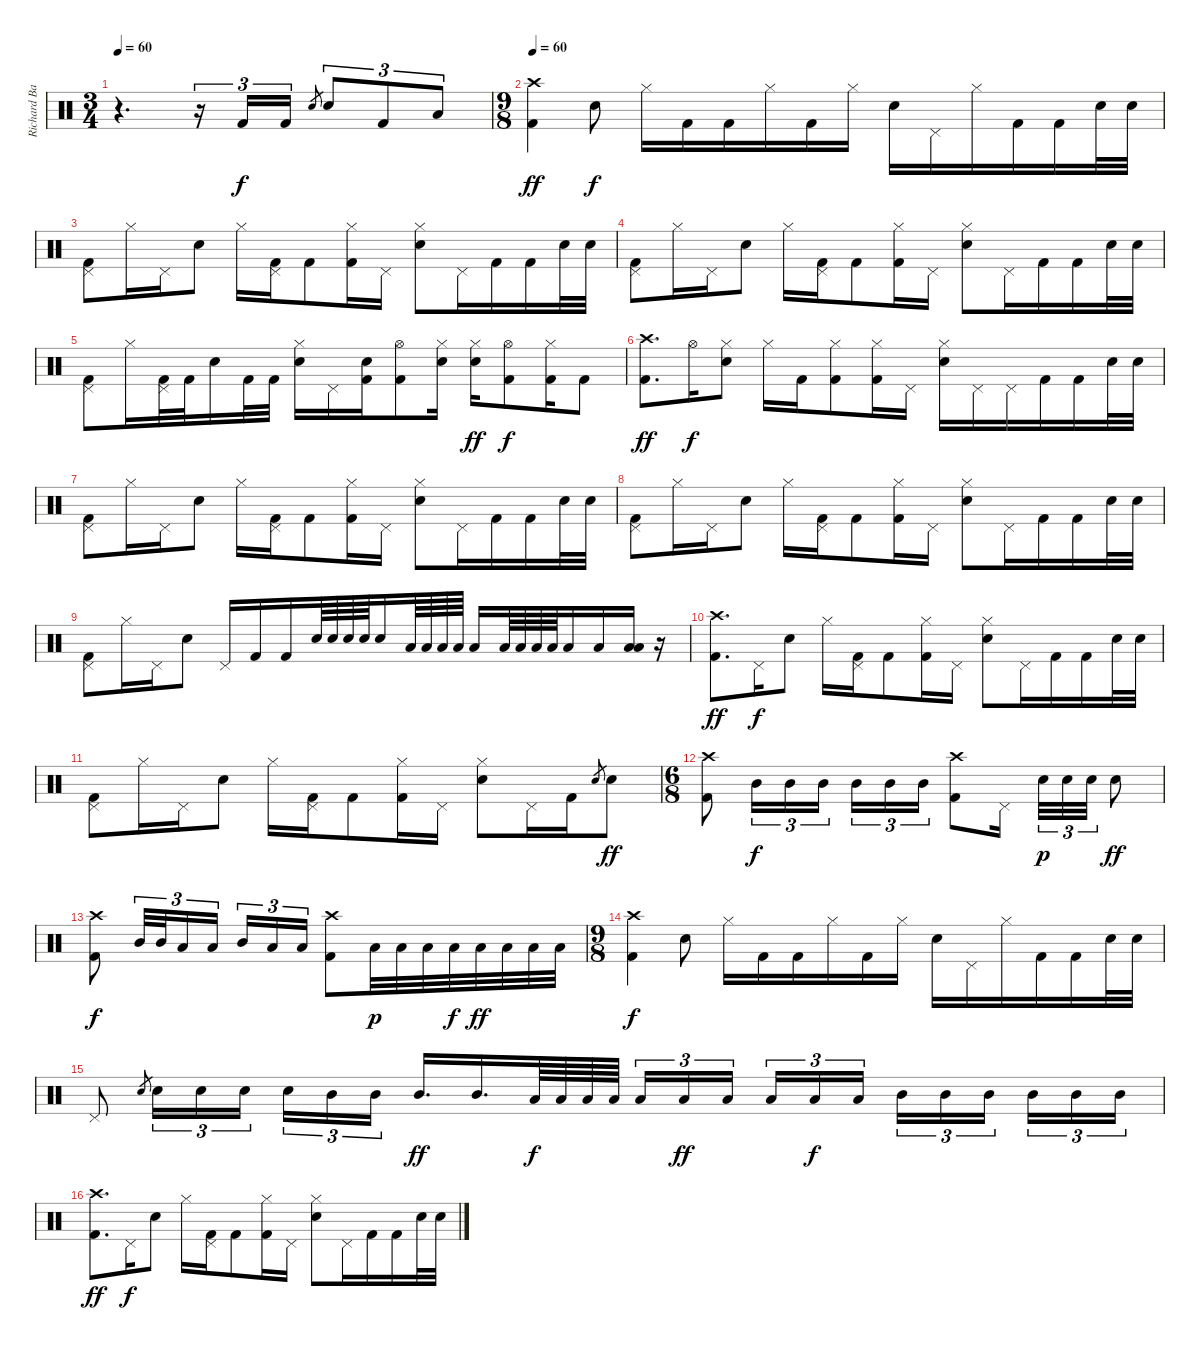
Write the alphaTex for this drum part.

\track ("Richard Bailey" "Richard Ba") {instrument percussion}
\staff {score}
\articulation defaults
\ts (3 4)
\tempo 60
\tempo 66
\tempo 60
\clef neutral
\ks c
r.4{d dy f} r.16{tu (3 2)} "Kick (hit) 2".16{tu (3 2)} "Kick (hit) 2".16{tu (3 2)} "Snare (hit) 2".8{gr} "Snare (hit) 2".8{tu (3 2)} "Kick (hit) 2".8{tu (3 2)} "Low Floor Tom (hit)".8{tu (3 2)} |
\ts (9 8)
\tempo 60
("Crash high (hit)" "Kick (hit) 2").4{dy ff} "Snare (hit) 2".8{dy f} "Hi-Hat (closed)".16 "Kick (hit) 2".16 "Kick (hit) 2".16 "Hi-Hat (closed)".16 "Kick (hit) 2".16 "Hi-Hat (closed)".16 "Snare (hit) 2".16 "Pedal Hi-Hat (hit)".16 "Hi-Hat (closed)".16 "Kick (hit) 2".16 "Kick (hit) 2".16 "Snare (hit) 2".32 "Snare (hit) 2".32 |
("Pedal Hi-Hat (hit)" "Kick (hit) 2").8 "Hi-Hat (closed)".16 "Pedal Hi-Hat (hit)".16 "Snare (hit) 2".8 "Hi-Hat (closed)".16 ("Pedal Hi-Hat (hit)" "Kick (hit) 2").16 "Kick (hit) 2".8 ("Hi-Hat (closed)" "Kick (hit) 2").16 "Pedal Hi-Hat (hit)".16 ("Hi-Hat (closed)" "Snare (hit) 2").8 "Pedal Hi-Hat (hit)".16 "Kick (hit) 2".16 "Kick (hit) 2".16 "Snare (hit) 2".32 "Snare (hit) 2".32 |
("Pedal Hi-Hat (hit)" "Kick (hit) 2").8 "Hi-Hat (closed)".16 "Pedal Hi-Hat (hit)".16 "Snare (hit) 2".8 "Hi-Hat (closed)".16 ("Pedal Hi-Hat (hit)" "Kick (hit) 2").16 "Kick (hit) 2".8 ("Hi-Hat (closed)" "Kick (hit) 2").16 "Pedal Hi-Hat (hit)".16 ("Hi-Hat (closed)" "Snare (hit) 2").8 "Pedal Hi-Hat (hit)".16 "Kick (hit) 2".16 "Kick (hit) 2".16 "Snare (hit) 2".32 "Snare (hit) 2".32 |
("Pedal Hi-Hat (hit)" "Kick (hit) 2").8 "Hi-Hat (closed)".16 ("Pedal Hi-Hat (hit)" "Kick (hit) 2").32 "Kick (hit) 2".32 "Snare (hit) 2".16 "Kick (hit) 2".32 "Kick (hit) 2".32 ("Hi-Hat (closed)" "Snare (hit) 2").16 "Pedal Hi-Hat (hit)".16 ("Snare (hit) 2" "Kick (hit) 2").16 ("Hi-Hat (open)" "Kick (hit) 2").8 ("Hi-Hat (closed)" "Snare (hit) 2").16 ("Hi-Hat (closed)" "Electric Snare (hit)").16{dy ff} ("Hi-Hat (open)" "Kick (hit) 2").8{dy f} ("Hi-Hat (closed)" "Kick (hit) 2").16 "Kick (hit) 2".8 |
("Crash high (hit)" "Kick (hit) 2").8{d dy ff} "Hi-Hat (open)".16{dy f} ("Hi-Hat (closed)" "Snare (hit) 2").8 "Hi-Hat (closed)".16 "Kick (hit) 2".16 ("Hi-Hat (closed)" "Kick (hit) 2").8 ("Hi-Hat (closed)" "Kick (hit) 2").16 "Pedal Hi-Hat (hit)".16 ("Hi-Hat (closed)" "Snare (hit) 2").16 "Pedal Hi-Hat (hit)".16 "Pedal Hi-Hat (hit)".16 "Kick (hit) 2".16 "Kick (hit) 2".16 "Snare (hit) 2".32 "Snare (hit) 2".32 |
("Pedal Hi-Hat (hit)" "Kick (hit) 2").8 "Hi-Hat (closed)".16 "Pedal Hi-Hat (hit)".16 "Snare (hit) 2".8 "Hi-Hat (closed)".16 ("Pedal Hi-Hat (hit)" "Kick (hit) 2").16 "Kick (hit) 2".8 ("Hi-Hat (closed)" "Kick (hit) 2").16 "Pedal Hi-Hat (hit)".16 ("Hi-Hat (closed)" "Snare (hit) 2").8 "Pedal Hi-Hat (hit)".16 "Kick (hit) 2".16 "Kick (hit) 2".16 "Snare (hit) 2".32 "Snare (hit) 2".32 |
("Pedal Hi-Hat (hit)" "Kick (hit) 2").8 "Hi-Hat (closed)".16 "Pedal Hi-Hat (hit)".16 "Snare (hit) 2".8 "Hi-Hat (closed)".16 ("Pedal Hi-Hat (hit)" "Kick (hit) 2").16 "Kick (hit) 2".8 ("Hi-Hat (closed)" "Kick (hit) 2").16 "Pedal Hi-Hat (hit)".16 ("Hi-Hat (closed)" "Snare (hit) 2").8 "Pedal Hi-Hat (hit)".16 "Kick (hit) 2".16 "Kick (hit) 2".16 "Snare (hit) 2".32 "Snare (hit) 2".32 |
("Pedal Hi-Hat (hit)" "Kick (hit) 2").8 "Hi-Hat (closed)".16 "Pedal Hi-Hat (hit)".16 "Snare (hit) 2".8 "Pedal Hi-Hat (hit)".16 "Kick (hit) 2".16 "Kick (hit) 2".16 "Snare (hit) 2".64 "Snare (hit) 2".64 "Snare (hit) 2".64 "Snare (hit) 2".64 "Snare (hit) 2".16 "Low Tom (hit)".64 "Low Tom (hit)".64 "Low Tom (hit)".64 "Low Tom (hit)".64 "Low Tom (hit)".16 "Low Floor Tom (hit)".64 "Low Floor Tom (hit)".64 "Low Floor Tom (hit)".64 "Low Floor Tom (hit)".64 "Low Floor Tom (hit)".16 "Low Floor Tom (hit)".16 ("Low Tom (hit)" "Low Floor Tom (hit)").16 r.16 |
("Crash high (hit)" "Kick (hit) 2").8{d dy ff} "Pedal Hi-Hat (hit)".16{dy f} "Snare (hit) 2".8 "Hi-Hat (closed)".16 ("Pedal Hi-Hat (hit)" "Kick (hit) 2").16 "Kick (hit) 2".8 ("Hi-Hat (closed)" "Kick (hit) 2").16 "Pedal Hi-Hat (hit)".16 ("Hi-Hat (closed)" "Snare (hit) 2").8 "Pedal Hi-Hat (hit)".16 "Kick (hit) 2".16 "Kick (hit) 2".16 "Snare (hit) 2".32 "Snare (hit) 2".32 |
("Pedal Hi-Hat (hit)" "Kick (hit) 2").8 "Hi-Hat (closed)".16 "Pedal Hi-Hat (hit)".16 "Snare (hit) 2".8 "Hi-Hat (closed)".16 ("Pedal Hi-Hat (hit)" "Kick (hit) 2").16 "Kick (hit) 2".8 ("Hi-Hat (closed)" "Kick (hit) 2").16 "Pedal Hi-Hat (hit)".16 ("Hi-Hat (closed)" "Snare (hit) 2").8 "Pedal Hi-Hat (hit)".16 "Kick (hit) 2".16 "Snare (hit) 2".8{gr} "Snare (hit) 2".8{dy ff} |
\ts (6 8)
("Crash high (hit)" "Kick (hit) 2").8 "Mid Tom (hit)".16{tu (3 2) dy f} "Mid Tom (hit)".16{tu (3 2)} "Mid Tom (hit)".16{tu (3 2)} "Mid Tom (hit)".16{tu (3 2)} "Mid Tom (hit)".16{tu (3 2)} "Mid Tom (hit)".16{tu (3 2)} ("Crash high (hit)" "Kick (hit) 2").8 "Pedal Hi-Hat (hit)".16 "Snare (hit) 2".32{tu (3 2) dy p} "Snare (hit) 2".32{tu (3 2)} "Snare (hit) 2".32{tu (3 2)} "Snare (hit) 2".8{dy ff} |
("Crash high (hit)" "Kick (hit) 2").8{dy f} "Mid Tom (hit)".32{tu (3 2)} "Mid Tom (hit)".32{tu (3 2)} "Low Tom (hit)".16{tu (3 2)} "Low Tom (hit)".16{tu (3 2)} "Mid Tom (hit)".16{tu (3 2)} "Low Tom (hit)".16{tu (3 2)} "Low Tom (hit)".16{tu (3 2)} ("Crash high (hit)" "Kick (hit) 2").8 "Low Tom (hit)".32{dy p} "Low Tom (hit)".32 "Low Tom (hit)".32 "Low Tom (hit)".32{dy f} "Low Tom (hit)".32{dy ff} "Low Tom (hit)".32 "Low Tom (hit)".32 "Low Tom (hit)".32 |
\ts (9 8)
("Crash high (hit)" "Kick (hit) 2").4{dy f} "Snare (hit) 2".8 "Hi-Hat (closed)".16 "Kick (hit) 2".16 "Kick (hit) 2".16 "Hi-Hat (closed)".16 "Kick (hit) 2".16 "Hi-Hat (closed)".16 "Snare (hit) 2".16 "Pedal Hi-Hat (hit)".16 "Hi-Hat (closed)".16 "Kick (hit) 2".16 "Kick (hit) 2".16 "Snare (hit) 2".32 "Snare (hit) 2".32 |
"Pedal Hi-Hat (hit)".8 "Snare (hit) 2".8{gr} "Snare (hit) 2".16{tu (3 2)} "Snare (hit) 2".16{tu (3 2)} "Snare (hit) 2".16{tu (3 2)} "Snare (hit) 2".16{tu (3 2)} "Mid Tom (hit)".16{tu (3 2)} "Mid Tom (hit)".16{tu (3 2)} "Mid Tom (hit)".16{d dy ff} "Mid Tom (hit)".16{d} "Low Floor Tom (hit)".64{dy f} "Low Floor Tom (hit)".64 "Low Floor Tom (hit)".64 "Low Floor Tom (hit)".64 "Low Tom (hit)".16{tu (3 2)} "Low Tom (hit)".16{tu (3 2) dy ff} "Low Tom (hit)".16{tu (3 2)} "Low Tom (hit)".16{tu (3 2)} "Low Floor Tom (hit)".16{tu (3 2) dy f} "Low Floor Tom (hit)".16{tu (3 2)} "Mid Tom (hit)".16{tu (3 2)} "Mid Tom (hit)".16{tu (3 2)} "Mid Tom (hit)".16{tu (3 2)} "Mid Tom (hit)".16{tu (3 2)} "Mid Tom (hit)".16{tu (3 2)} "Mid Tom (hit)".16{tu (3 2)} |
("Crash high (hit)" "Kick (hit) 2").8{d dy ff} "Pedal Hi-Hat (hit)".16{dy f} "Snare (hit) 2".8 "Hi-Hat (closed)".16 ("Pedal Hi-Hat (hit)" "Kick (hit) 2").16 "Kick (hit) 2".8 ("Hi-Hat (closed)" "Kick (hit) 2").16 "Pedal Hi-Hat (hit)".16 ("Hi-Hat (closed)" "Snare (hit) 2").8 "Pedal Hi-Hat (hit)".16 "Kick (hit) 2".16 "Kick (hit) 2".16 "Snare (hit) 2".32 "Snare (hit) 2".32
